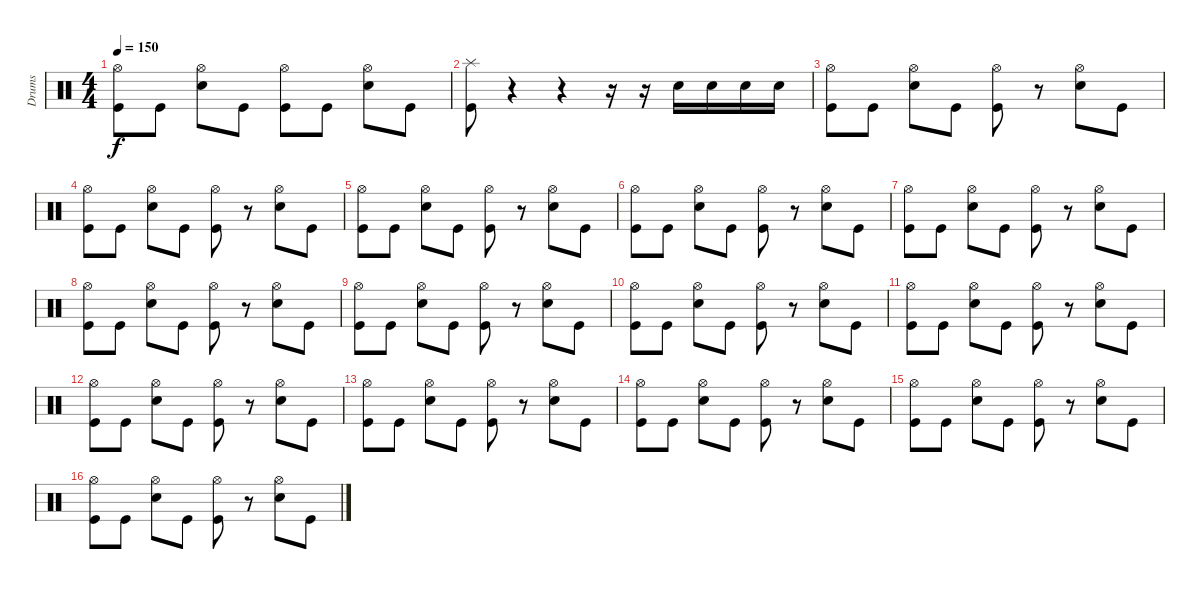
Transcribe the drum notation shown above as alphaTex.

\track ("Drums" "Drums") {instrument percussion}
\staff {score}
\articulation defaults
\ts (4 4)
\tempo 150
\clef neutral
\ks c
("Hi-Hat (open)" "Kick (hit)").8{dy f} "Kick (hit)".8 ("Hi-Hat (open)" "Snare (hit) 2").8 "Kick (hit)".8 ("Hi-Hat (open)" "Kick (hit)").8 "Kick (hit)".8 ("Hi-Hat (open)" "Snare (hit) 2").8 "Kick (hit)".8 |
("Splash (hit)" "Kick (hit)").8 r.4 r.4 r.16 r.16 "Snare (hit) 2".16 "Snare (hit) 2".16 "Snare (hit) 2".16 "Snare (hit) 2".16 |
("Hi-Hat (open)" "Kick (hit)").8 "Kick (hit)".8 ("Hi-Hat (open)" "Snare (hit) 2").8 "Kick (hit)".8 ("Hi-Hat (open)" "Kick (hit)").8 r.8 ("Hi-Hat (open)" "Snare (hit) 2").8 "Kick (hit)".8 |
("Hi-Hat (open)" "Kick (hit)").8 "Kick (hit)".8 ("Hi-Hat (open)" "Snare (hit) 2").8 "Kick (hit)".8 ("Hi-Hat (open)" "Kick (hit)").8 r.8 ("Hi-Hat (open)" "Snare (hit) 2").8 "Kick (hit)".8 |
("Hi-Hat (open)" "Kick (hit)").8 "Kick (hit)".8 ("Hi-Hat (open)" "Snare (hit) 2").8 "Kick (hit)".8 ("Hi-Hat (open)" "Kick (hit)").8 r.8 ("Hi-Hat (open)" "Snare (hit) 2").8 "Kick (hit)".8 |
("Hi-Hat (open)" "Kick (hit)").8 "Kick (hit)".8 ("Hi-Hat (open)" "Snare (hit) 2").8 "Kick (hit)".8 ("Hi-Hat (open)" "Kick (hit)").8 r.8 ("Hi-Hat (open)" "Snare (hit) 2").8 "Kick (hit)".8 |
("Hi-Hat (open)" "Kick (hit)").8 "Kick (hit)".8 ("Hi-Hat (open)" "Snare (hit) 2").8 "Kick (hit)".8 ("Hi-Hat (open)" "Kick (hit)").8 r.8 ("Hi-Hat (open)" "Snare (hit) 2").8 "Kick (hit)".8 |
("Hi-Hat (open)" "Kick (hit)").8 "Kick (hit)".8 ("Hi-Hat (open)" "Snare (hit) 2").8 "Kick (hit)".8 ("Hi-Hat (open)" "Kick (hit)").8 r.8 ("Hi-Hat (open)" "Snare (hit) 2").8 "Kick (hit)".8 |
("Hi-Hat (open)" "Kick (hit)").8 "Kick (hit)".8 ("Hi-Hat (open)" "Snare (hit) 2").8 "Kick (hit)".8 ("Hi-Hat (open)" "Kick (hit)").8 r.8 ("Hi-Hat (open)" "Snare (hit) 2").8 "Kick (hit)".8 |
("Hi-Hat (open)" "Kick (hit)").8 "Kick (hit)".8 ("Hi-Hat (open)" "Snare (hit) 2").8 "Kick (hit)".8 ("Hi-Hat (open)" "Kick (hit)").8 r.8 ("Hi-Hat (open)" "Snare (hit) 2").8 "Kick (hit)".8 |
("Hi-Hat (open)" "Kick (hit)").8 "Kick (hit)".8 ("Hi-Hat (open)" "Snare (hit) 2").8 "Kick (hit)".8 ("Hi-Hat (open)" "Kick (hit)").8 r.8 ("Hi-Hat (open)" "Snare (hit) 2").8 "Kick (hit)".8 |
("Hi-Hat (open)" "Kick (hit)").8 "Kick (hit)".8 ("Hi-Hat (open)" "Snare (hit) 2").8 "Kick (hit)".8 ("Hi-Hat (open)" "Kick (hit)").8 r.8 ("Hi-Hat (open)" "Snare (hit) 2").8 "Kick (hit)".8 |
("Hi-Hat (open)" "Kick (hit)").8 "Kick (hit)".8 ("Hi-Hat (open)" "Snare (hit) 2").8 "Kick (hit)".8 ("Hi-Hat (open)" "Kick (hit)").8 r.8 ("Hi-Hat (open)" "Snare (hit) 2").8 "Kick (hit)".8 |
("Hi-Hat (open)" "Kick (hit)").8 "Kick (hit)".8 ("Hi-Hat (open)" "Snare (hit) 2").8 "Kick (hit)".8 ("Hi-Hat (open)" "Kick (hit)").8 r.8 ("Hi-Hat (open)" "Snare (hit) 2").8 "Kick (hit)".8 |
("Hi-Hat (open)" "Kick (hit)").8 "Kick (hit)".8 ("Hi-Hat (open)" "Snare (hit) 2").8 "Kick (hit)".8 ("Hi-Hat (open)" "Kick (hit)").8 r.8 ("Hi-Hat (open)" "Snare (hit) 2").8 "Kick (hit)".8 |
("Hi-Hat (open)" "Kick (hit)").8 "Kick (hit)".8 ("Hi-Hat (open)" "Snare (hit) 2").8 "Kick (hit)".8 ("Hi-Hat (open)" "Kick (hit)").8 r.8 ("Hi-Hat (open)" "Snare (hit) 2").8 "Kick (hit)".8
